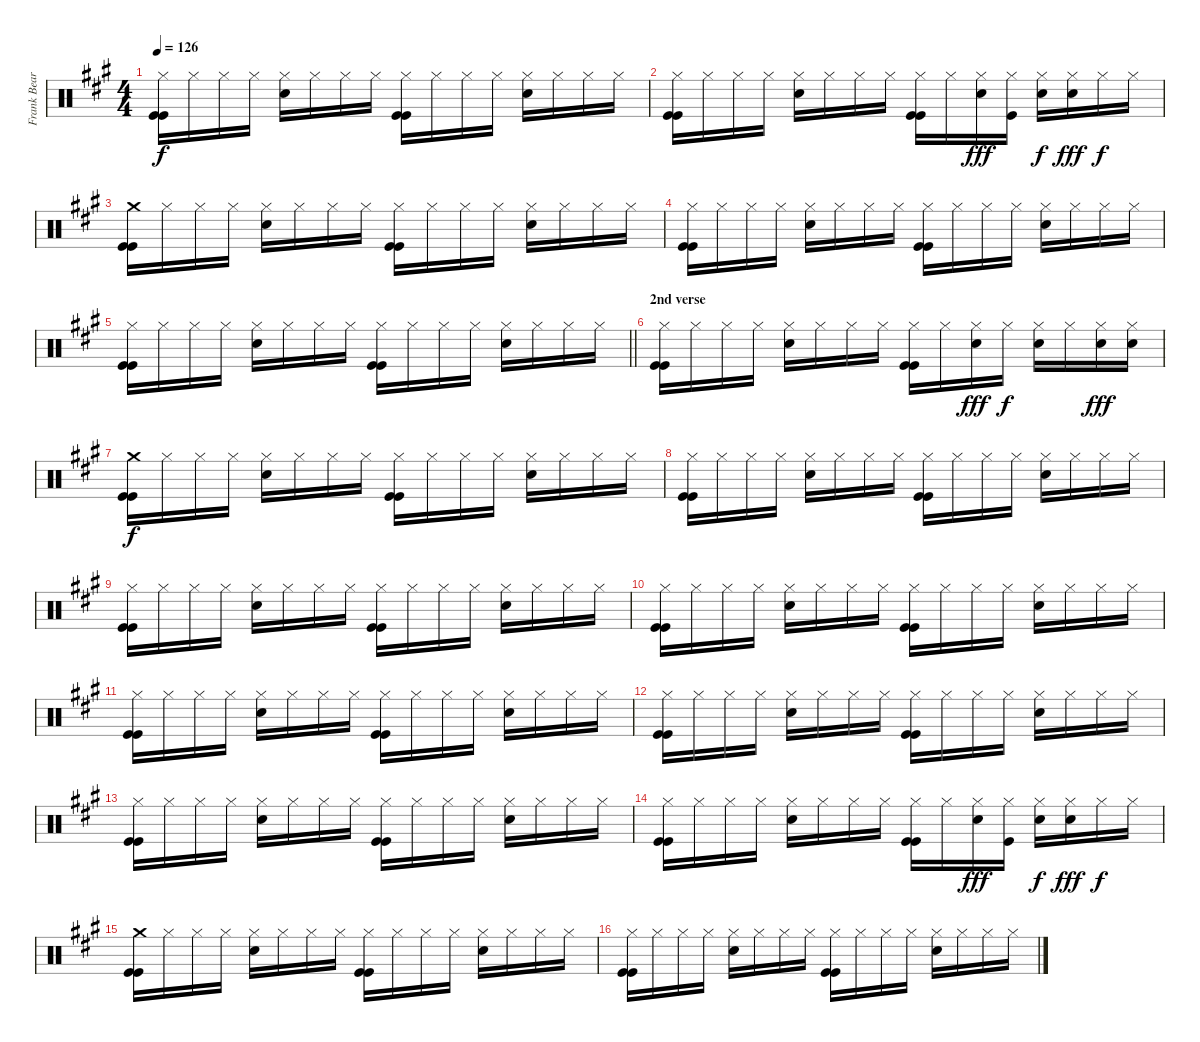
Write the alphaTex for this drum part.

\track ("Frank Beard: Drums" "Frank Bear") {instrument percussion}
\staff {score}
\articulation defaults
\ts (4 4)
\tempo 126
\clef neutral
\ks a
("Hi-Hat (closed)" "Kick (hit)" "Kick (hit)").16{dy f} "Hi-Hat (closed)".16 "Hi-Hat (closed)".16 "Hi-Hat (closed)".16 ("Hi-Hat (closed)" "Electric Snare (hit)").16 "Hi-Hat (closed)".16 "Hi-Hat (closed)".16 "Hi-Hat (closed)".16 ("Hi-Hat (closed)" "Kick (hit)" "Kick (hit)").16 "Hi-Hat (closed)".16 "Hi-Hat (closed)".16 "Hi-Hat (closed)".16 ("Hi-Hat (closed)" "Electric Snare (hit)").16 "Hi-Hat (closed)".16 "Hi-Hat (closed)".16 "Hi-Hat (closed)".16 |
("Hi-Hat (closed)" "Kick (hit)" "Kick (hit)").16 "Hi-Hat (closed)".16 "Hi-Hat (closed)".16 "Hi-Hat (closed)".16 ("Hi-Hat (closed)" "Electric Snare (hit)").16 "Hi-Hat (closed)".16 "Hi-Hat (closed)".16 "Hi-Hat (closed)".16 ("Hi-Hat (closed)" "Kick (hit)" "Kick (hit)").16 "Hi-Hat (closed)".16 ("Hi-Hat (closed)" "Electric Snare (hit)").16{dy fff} ("Hi-Hat (closed)" "Kick (hit)").16 ("Hi-Hat (closed)" "Electric Snare (hit)").16{dy f} ("Hi-Hat (closed)" "Electric Snare (hit)").16{dy fff} "Hi-Hat (closed)".16{dy f} "Hi-Hat (closed)".16 |
("Crash medium (hit)" "Kick (hit)" "Kick (hit)").16 "Hi-Hat (closed)".16 "Hi-Hat (closed)".16 "Hi-Hat (closed)".16 ("Hi-Hat (closed)" "Electric Snare (hit)").16 "Hi-Hat (closed)".16 "Hi-Hat (closed)".16 "Hi-Hat (closed)".16 ("Hi-Hat (closed)" "Kick (hit)" "Kick (hit)").16 "Hi-Hat (closed)".16 "Hi-Hat (closed)".16 "Hi-Hat (closed)".16 ("Hi-Hat (closed)" "Electric Snare (hit)").16 "Hi-Hat (closed)".16 "Hi-Hat (closed)".16 "Hi-Hat (closed)".16 |
("Hi-Hat (closed)" "Kick (hit)" "Kick (hit)").16 "Hi-Hat (closed)".16 "Hi-Hat (closed)".16 "Hi-Hat (closed)".16 ("Hi-Hat (closed)" "Electric Snare (hit)").16 "Hi-Hat (closed)".16 "Hi-Hat (closed)".16 "Hi-Hat (closed)".16 ("Hi-Hat (closed)" "Kick (hit)" "Kick (hit)").16 "Hi-Hat (closed)".16 "Hi-Hat (closed)".16 "Hi-Hat (closed)".16 ("Hi-Hat (closed)" "Electric Snare (hit)").16 "Hi-Hat (closed)".16 "Hi-Hat (closed)".16 "Hi-Hat (closed)".16 |
\barLineRight lightlight
("Hi-Hat (closed)" "Kick (hit)" "Kick (hit)").16 "Hi-Hat (closed)".16 "Hi-Hat (closed)".16 "Hi-Hat (closed)".16 ("Hi-Hat (closed)" "Electric Snare (hit)").16 "Hi-Hat (closed)".16 "Hi-Hat (closed)".16 "Hi-Hat (closed)".16 ("Hi-Hat (closed)" "Kick (hit)" "Kick (hit)").16 "Hi-Hat (closed)".16 "Hi-Hat (closed)".16 "Hi-Hat (closed)".16 ("Hi-Hat (closed)" "Electric Snare (hit)").16 "Hi-Hat (closed)".16 "Hi-Hat (closed)".16 "Hi-Hat (closed)".16 |
\section ("" "2nd verse")
("Hi-Hat (closed)" "Kick (hit)" "Kick (hit)").16 "Hi-Hat (closed)".16 "Hi-Hat (closed)".16 "Hi-Hat (closed)".16 ("Hi-Hat (closed)" "Electric Snare (hit)").16 "Hi-Hat (closed)".16 "Hi-Hat (closed)".16 "Hi-Hat (closed)".16 ("Hi-Hat (closed)" "Kick (hit)" "Kick (hit)").16 "Hi-Hat (closed)".16 ("Hi-Hat (closed)" "Electric Snare (hit)").16{dy fff} "Hi-Hat (closed)".16{dy f} ("Hi-Hat (closed)" "Electric Snare (hit)").16 "Hi-Hat (closed)".16 ("Hi-Hat (closed)" "Electric Snare (hit)").16{dy fff} ("Hi-Hat (closed)" "Electric Snare (hit)").16 |
("Crash medium (hit)" "Kick (hit)" "Kick (hit)").16{dy f} "Hi-Hat (closed)".16 "Hi-Hat (closed)".16 "Hi-Hat (closed)".16 ("Hi-Hat (closed)" "Electric Snare (hit)").16 "Hi-Hat (closed)".16 "Hi-Hat (closed)".16 "Hi-Hat (closed)".16 ("Hi-Hat (closed)" "Kick (hit)" "Kick (hit)").16 "Hi-Hat (closed)".16 "Hi-Hat (closed)".16 "Hi-Hat (closed)".16 ("Hi-Hat (closed)" "Electric Snare (hit)").16 "Hi-Hat (closed)".16 "Hi-Hat (closed)".16 "Hi-Hat (closed)".16 |
("Hi-Hat (closed)" "Kick (hit)" "Kick (hit)").16 "Hi-Hat (closed)".16 "Hi-Hat (closed)".16 "Hi-Hat (closed)".16 ("Hi-Hat (closed)" "Electric Snare (hit)").16 "Hi-Hat (closed)".16 "Hi-Hat (closed)".16 "Hi-Hat (closed)".16 ("Hi-Hat (closed)" "Kick (hit)" "Kick (hit)").16 "Hi-Hat (closed)".16 "Hi-Hat (closed)".16 "Hi-Hat (closed)".16 ("Hi-Hat (closed)" "Electric Snare (hit)").16 "Hi-Hat (closed)".16 "Hi-Hat (closed)".16 "Hi-Hat (closed)".16 |
("Hi-Hat (closed)" "Kick (hit)" "Kick (hit)").16 "Hi-Hat (closed)".16 "Hi-Hat (closed)".16 "Hi-Hat (closed)".16 ("Hi-Hat (closed)" "Electric Snare (hit)").16 "Hi-Hat (closed)".16 "Hi-Hat (closed)".16 "Hi-Hat (closed)".16 ("Hi-Hat (closed)" "Kick (hit)" "Kick (hit)").16 "Hi-Hat (closed)".16 "Hi-Hat (closed)".16 "Hi-Hat (closed)".16 ("Hi-Hat (closed)" "Electric Snare (hit)").16 "Hi-Hat (closed)".16 "Hi-Hat (closed)".16 "Hi-Hat (closed)".16 |
("Hi-Hat (closed)" "Kick (hit)" "Kick (hit)").16 "Hi-Hat (closed)".16 "Hi-Hat (closed)".16 "Hi-Hat (closed)".16 ("Hi-Hat (closed)" "Electric Snare (hit)").16 "Hi-Hat (closed)".16 "Hi-Hat (closed)".16 "Hi-Hat (closed)".16 ("Hi-Hat (closed)" "Kick (hit)" "Kick (hit)").16 "Hi-Hat (closed)".16 "Hi-Hat (closed)".16 "Hi-Hat (closed)".16 ("Hi-Hat (closed)" "Electric Snare (hit)").16 "Hi-Hat (closed)".16 "Hi-Hat (closed)".16 "Hi-Hat (closed)".16 |
("Hi-Hat (closed)" "Kick (hit)" "Kick (hit)").16 "Hi-Hat (closed)".16 "Hi-Hat (closed)".16 "Hi-Hat (closed)".16 ("Hi-Hat (closed)" "Electric Snare (hit)").16 "Hi-Hat (closed)".16 "Hi-Hat (closed)".16 "Hi-Hat (closed)".16 ("Hi-Hat (closed)" "Kick (hit)" "Kick (hit)").16 "Hi-Hat (closed)".16 "Hi-Hat (closed)".16 "Hi-Hat (closed)".16 ("Hi-Hat (closed)" "Electric Snare (hit)").16 "Hi-Hat (closed)".16 "Hi-Hat (closed)".16 "Hi-Hat (closed)".16 |
("Hi-Hat (closed)" "Kick (hit)" "Kick (hit)").16 "Hi-Hat (closed)".16 "Hi-Hat (closed)".16 "Hi-Hat (closed)".16 ("Hi-Hat (closed)" "Electric Snare (hit)").16 "Hi-Hat (closed)".16 "Hi-Hat (closed)".16 "Hi-Hat (closed)".16 ("Hi-Hat (closed)" "Kick (hit)" "Kick (hit)").16 "Hi-Hat (closed)".16 "Hi-Hat (closed)".16 "Hi-Hat (closed)".16 ("Hi-Hat (closed)" "Electric Snare (hit)").16 "Hi-Hat (closed)".16 "Hi-Hat (closed)".16 "Hi-Hat (closed)".16 |
("Hi-Hat (closed)" "Kick (hit)" "Kick (hit)").16 "Hi-Hat (closed)".16 "Hi-Hat (closed)".16 "Hi-Hat (closed)".16 ("Hi-Hat (closed)" "Electric Snare (hit)").16 "Hi-Hat (closed)".16 "Hi-Hat (closed)".16 "Hi-Hat (closed)".16 ("Hi-Hat (closed)" "Kick (hit)" "Kick (hit)").16 "Hi-Hat (closed)".16 "Hi-Hat (closed)".16 "Hi-Hat (closed)".16 ("Hi-Hat (closed)" "Electric Snare (hit)").16 "Hi-Hat (closed)".16 "Hi-Hat (closed)".16 "Hi-Hat (closed)".16 |
("Hi-Hat (closed)" "Kick (hit)" "Kick (hit)").16 "Hi-Hat (closed)".16 "Hi-Hat (closed)".16 "Hi-Hat (closed)".16 ("Hi-Hat (closed)" "Electric Snare (hit)").16 "Hi-Hat (closed)".16 "Hi-Hat (closed)".16 "Hi-Hat (closed)".16 ("Hi-Hat (closed)" "Kick (hit)" "Kick (hit)").16 "Hi-Hat (closed)".16 ("Hi-Hat (closed)" "Electric Snare (hit)").16{dy fff} ("Hi-Hat (closed)" "Kick (hit)").16 ("Hi-Hat (closed)" "Electric Snare (hit)").16{dy f} ("Hi-Hat (closed)" "Electric Snare (hit)").16{dy fff} "Hi-Hat (closed)".16{dy f} "Hi-Hat (closed)".16 |
("Crash medium (hit)" "Kick (hit)" "Kick (hit)").16 "Hi-Hat (closed)".16 "Hi-Hat (closed)".16 "Hi-Hat (closed)".16 ("Hi-Hat (closed)" "Electric Snare (hit)").16 "Hi-Hat (closed)".16 "Hi-Hat (closed)".16 "Hi-Hat (closed)".16 ("Hi-Hat (closed)" "Kick (hit)" "Kick (hit)").16 "Hi-Hat (closed)".16 "Hi-Hat (closed)".16 "Hi-Hat (closed)".16 ("Hi-Hat (closed)" "Electric Snare (hit)").16 "Hi-Hat (closed)".16 "Hi-Hat (closed)".16 "Hi-Hat (closed)".16 |
("Hi-Hat (closed)" "Kick (hit)" "Kick (hit)").16 "Hi-Hat (closed)".16 "Hi-Hat (closed)".16 "Hi-Hat (closed)".16 ("Hi-Hat (closed)" "Electric Snare (hit)").16 "Hi-Hat (closed)".16 "Hi-Hat (closed)".16 "Hi-Hat (closed)".16 ("Hi-Hat (closed)" "Kick (hit)" "Kick (hit)").16 "Hi-Hat (closed)".16 "Hi-Hat (closed)".16 "Hi-Hat (closed)".16 ("Hi-Hat (closed)" "Electric Snare (hit)").16 "Hi-Hat (closed)".16 "Hi-Hat (closed)".16 "Hi-Hat (closed)".16
